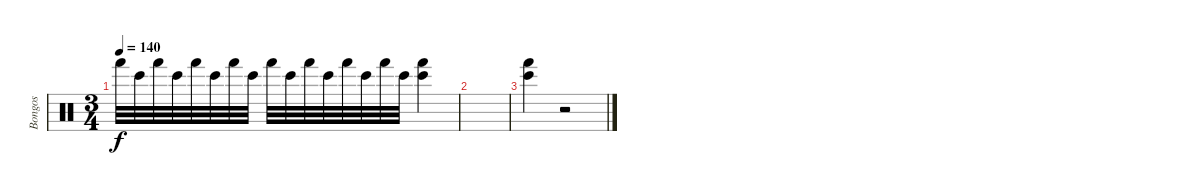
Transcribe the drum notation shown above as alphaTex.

\track ("Bongos" "Bongos") {instrument percussion}
\staff {score}
\articulation defaults
\ts (3 4)
\tempo 140
\clef neutral
\ks c "Hand (hit)".32{dy f} "Bongo High (hit)".32 "Hand (hit)".32 "Bongo High (hit)".32 "Hand (hit)".32 "Bongo High (hit)".32 "Hand (hit)".32 "Bongo High (hit)".32 "Hand (hit)".32 "Bongo High (hit)".32 "Hand (hit)".32 "Bongo High (hit)".32 "Hand (hit)".32 "Bongo High (hit)".32 "Hand (hit)".32 "Bongo High (hit)".32
("Bongo High (hit)" "Hand (hit)").4 |
|
("Bongo High (hit)" "Hand (hit)").4 r.2
